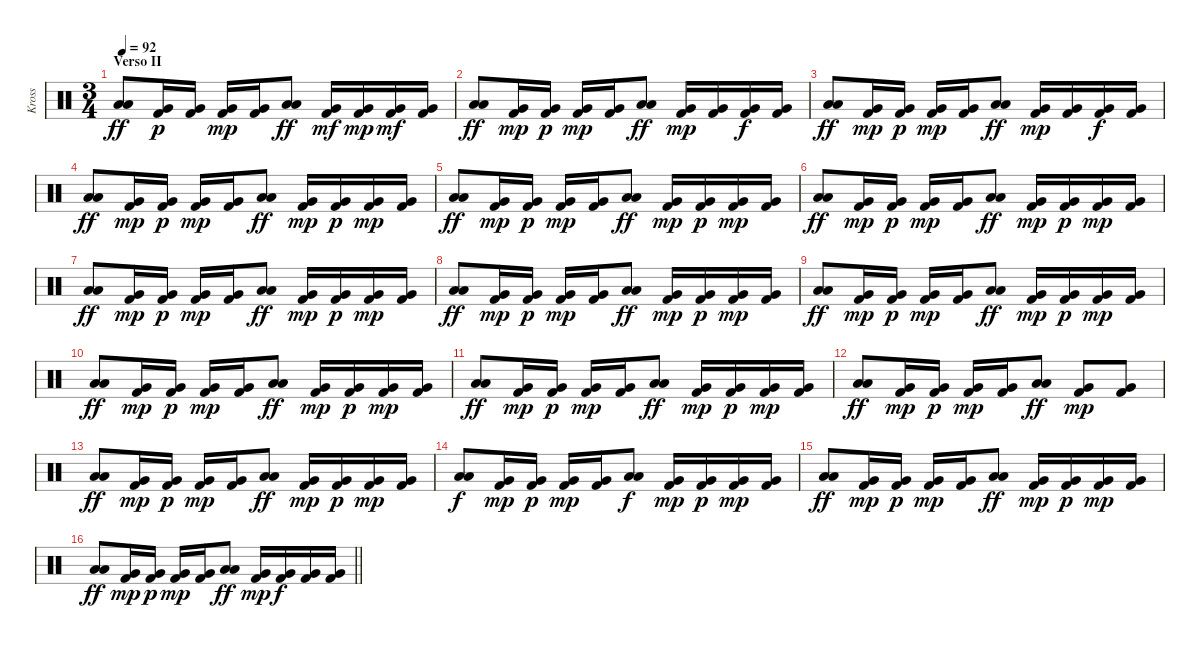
\track ("Kross" "Kross") {instrument percussion}
\staff {score}
\articulation defaults
\ts (3 4)
\section ("" "Verso II")
\tempo 92
\clef neutral
\ks c
("Low Floor Tom (hit)" "Low Tom (hit)").8{dy ff} ("Very Low Tom (hit)" "Kick (hit) 2").16{dy p} ("Very Low Tom (hit)" "Kick (hit) 2").16 ("Very Low Tom (hit)" "Kick (hit) 2").16{dy mp} ("Very Low Tom (hit)" "Kick (hit) 2").16 ("Low Floor Tom (hit)" "Low Tom (hit)").8{dy ff} ("Very Low Tom (hit)" "Kick (hit) 2").16{dy mf} ("Very Low Tom (hit)" "Kick (hit) 2").16{dy mp} ("Very Low Tom (hit)" "Kick (hit) 2").16{dy mf} ("Very Low Tom (hit)" "Kick (hit) 2").16 |
("Low Floor Tom (hit)" "Low Tom (hit)").8{dy ff} ("Very Low Tom (hit)" "Kick (hit) 2").16{dy mp} ("Very Low Tom (hit)" "Kick (hit) 2").16{dy p} ("Very Low Tom (hit)" "Kick (hit) 2").16{dy mp} ("Very Low Tom (hit)" "Kick (hit) 2").16 ("Low Floor Tom (hit)" "Low Tom (hit)").8{dy ff} ("Very Low Tom (hit)" "Kick (hit) 2").16{dy mp} ("Very Low Tom (hit)" "Kick (hit) 2").16 ("Very Low Tom (hit)" "Kick (hit) 2").16{dy f} ("Very Low Tom (hit)" "Kick (hit) 2").16 |
("Low Floor Tom (hit)" "Low Tom (hit)").8{dy ff} ("Very Low Tom (hit)" "Kick (hit) 2").16{dy mp} ("Very Low Tom (hit)" "Kick (hit) 2").16{dy p} ("Very Low Tom (hit)" "Kick (hit) 2").16{dy mp} ("Very Low Tom (hit)" "Kick (hit) 2").16 ("Low Floor Tom (hit)" "Low Tom (hit)").8{dy ff} ("Very Low Tom (hit)" "Kick (hit) 2").16{dy mp} ("Very Low Tom (hit)" "Kick (hit) 2").16 ("Very Low Tom (hit)" "Kick (hit) 2").16{dy f} ("Very Low Tom (hit)" "Kick (hit) 2").16 |
("Low Floor Tom (hit)" "Low Tom (hit)").8{dy ff} ("Very Low Tom (hit)" "Kick (hit) 2").16{dy mp} ("Very Low Tom (hit)" "Kick (hit) 2").16{dy p} ("Very Low Tom (hit)" "Kick (hit) 2").16{dy mp} ("Very Low Tom (hit)" "Kick (hit) 2").16 ("Low Floor Tom (hit)" "Low Tom (hit)").8{dy ff} ("Very Low Tom (hit)" "Kick (hit) 2").16{dy mp} ("Very Low Tom (hit)" "Kick (hit) 2").16{dy p} ("Very Low Tom (hit)" "Kick (hit) 2").16{dy mp} ("Very Low Tom (hit)" "Kick (hit) 2").16 |
("Low Floor Tom (hit)" "Low Tom (hit)").8{dy ff} ("Very Low Tom (hit)" "Kick (hit) 2").16{dy mp} ("Very Low Tom (hit)" "Kick (hit) 2").16{dy p} ("Very Low Tom (hit)" "Kick (hit) 2").16{dy mp} ("Very Low Tom (hit)" "Kick (hit) 2").16 ("Low Floor Tom (hit)" "Low Tom (hit)").8{dy ff} ("Very Low Tom (hit)" "Kick (hit) 2").16{dy mp} ("Very Low Tom (hit)" "Kick (hit) 2").16{dy p} ("Very Low Tom (hit)" "Kick (hit) 2").16{dy mp} ("Very Low Tom (hit)" "Kick (hit) 2").16 |
("Low Floor Tom (hit)" "Low Tom (hit)").8{dy ff} ("Very Low Tom (hit)" "Kick (hit) 2").16{dy mp} ("Very Low Tom (hit)" "Kick (hit) 2").16{dy p} ("Very Low Tom (hit)" "Kick (hit) 2").16{dy mp} ("Very Low Tom (hit)" "Kick (hit) 2").16 ("Low Floor Tom (hit)" "Low Tom (hit)").8{dy ff} ("Very Low Tom (hit)" "Kick (hit) 2").16{dy mp} ("Very Low Tom (hit)" "Kick (hit) 2").16{dy p} ("Very Low Tom (hit)" "Kick (hit) 2").16{dy mp} ("Very Low Tom (hit)" "Kick (hit) 2").16 |
("Low Floor Tom (hit)" "Low Tom (hit)").8{dy ff} ("Very Low Tom (hit)" "Kick (hit) 2").16{dy mp} ("Very Low Tom (hit)" "Kick (hit) 2").16{dy p} ("Very Low Tom (hit)" "Kick (hit) 2").16{dy mp} ("Very Low Tom (hit)" "Kick (hit) 2").16 ("Low Floor Tom (hit)" "Low Tom (hit)").8{dy ff} ("Very Low Tom (hit)" "Kick (hit) 2").16{dy mp} ("Very Low Tom (hit)" "Kick (hit) 2").16{dy p} ("Very Low Tom (hit)" "Kick (hit) 2").16{dy mp} ("Very Low Tom (hit)" "Kick (hit) 2").16 |
("Low Floor Tom (hit)" "Low Tom (hit)").8{dy ff} ("Very Low Tom (hit)" "Kick (hit) 2").16{dy mp} ("Very Low Tom (hit)" "Kick (hit) 2").16{dy p} ("Very Low Tom (hit)" "Kick (hit) 2").16{dy mp} ("Very Low Tom (hit)" "Kick (hit) 2").16 ("Low Floor Tom (hit)" "Low Tom (hit)").8{dy ff} ("Very Low Tom (hit)" "Kick (hit) 2").16{dy mp} ("Very Low Tom (hit)" "Kick (hit) 2").16{dy p} ("Very Low Tom (hit)" "Kick (hit) 2").16{dy mp} ("Very Low Tom (hit)" "Kick (hit) 2").16 |
("Low Floor Tom (hit)" "Low Tom (hit)").8{dy ff} ("Very Low Tom (hit)" "Kick (hit) 2").16{dy mp} ("Very Low Tom (hit)" "Kick (hit) 2").16{dy p} ("Very Low Tom (hit)" "Kick (hit) 2").16{dy mp} ("Very Low Tom (hit)" "Kick (hit) 2").16 ("Low Floor Tom (hit)" "Low Tom (hit)").8{dy ff} ("Very Low Tom (hit)" "Kick (hit) 2").16{dy mp} ("Very Low Tom (hit)" "Kick (hit) 2").16{dy p} ("Very Low Tom (hit)" "Kick (hit) 2").16{dy mp} ("Very Low Tom (hit)" "Kick (hit) 2").16 |
("Low Floor Tom (hit)" "Low Tom (hit)").8{dy ff} ("Very Low Tom (hit)" "Kick (hit) 2").16{dy mp} ("Very Low Tom (hit)" "Kick (hit) 2").16{dy p} ("Very Low Tom (hit)" "Kick (hit) 2").16{dy mp} ("Very Low Tom (hit)" "Kick (hit) 2").16 ("Low Floor Tom (hit)" "Low Tom (hit)").8{dy ff} ("Very Low Tom (hit)" "Kick (hit) 2").16{dy mp} ("Very Low Tom (hit)" "Kick (hit) 2").16{dy p} ("Very Low Tom (hit)" "Kick (hit) 2").16{dy mp} ("Very Low Tom (hit)" "Kick (hit) 2").16 |
("Low Floor Tom (hit)" "Low Tom (hit)").8{dy ff} ("Very Low Tom (hit)" "Kick (hit) 2").16{dy mp} ("Very Low Tom (hit)" "Kick (hit) 2").16{dy p} ("Very Low Tom (hit)" "Kick (hit) 2").16{dy mp} ("Very Low Tom (hit)" "Kick (hit) 2").16 ("Low Floor Tom (hit)" "Low Tom (hit)").8{dy ff} ("Very Low Tom (hit)" "Kick (hit) 2").16{dy mp} ("Very Low Tom (hit)" "Kick (hit) 2").16{dy p} ("Very Low Tom (hit)" "Kick (hit) 2").16{dy mp} ("Very Low Tom (hit)" "Kick (hit) 2").16 |
("Low Floor Tom (hit)" "Low Tom (hit)").8{dy ff} ("Very Low Tom (hit)" "Kick (hit) 2").16{dy mp} ("Very Low Tom (hit)" "Kick (hit) 2").16{dy p} ("Very Low Tom (hit)" "Kick (hit) 2").16{dy mp} ("Very Low Tom (hit)" "Kick (hit) 2").16 ("Low Floor Tom (hit)" "Low Tom (hit)").8{dy ff} ("Very Low Tom (hit)" "Kick (hit) 2").8{dy mp} ("Very Low Tom (hit)" "Kick (hit) 2").8 |
("Low Floor Tom (hit)" "Low Tom (hit)").8{dy ff} ("Very Low Tom (hit)" "Kick (hit) 2").16{dy mp} ("Very Low Tom (hit)" "Kick (hit) 2").16{dy p} ("Very Low Tom (hit)" "Kick (hit) 2").16{dy mp} ("Very Low Tom (hit)" "Kick (hit) 2").16 ("Low Floor Tom (hit)" "Low Tom (hit)").8{dy ff} ("Very Low Tom (hit)" "Kick (hit) 2").16{dy mp} ("Very Low Tom (hit)" "Kick (hit) 2").16{dy p} ("Very Low Tom (hit)" "Kick (hit) 2").16{dy mp} ("Very Low Tom (hit)" "Kick (hit) 2").16 |
("Low Floor Tom (hit)" "Low Tom (hit)").8{dy f} ("Very Low Tom (hit)" "Kick (hit) 2").16{dy mp} ("Very Low Tom (hit)" "Kick (hit) 2").16{dy p} ("Very Low Tom (hit)" "Kick (hit) 2").16{dy mp} ("Very Low Tom (hit)" "Kick (hit) 2").16 ("Low Floor Tom (hit)" "Low Tom (hit)").8{dy f} ("Very Low Tom (hit)" "Kick (hit) 2").16{dy mp} ("Very Low Tom (hit)" "Kick (hit) 2").16{dy p} ("Very Low Tom (hit)" "Kick (hit) 2").16{dy mp} ("Very Low Tom (hit)" "Kick (hit) 2").16 |
("Low Floor Tom (hit)" "Low Tom (hit)").8{dy ff} ("Very Low Tom (hit)" "Kick (hit) 2").16{dy mp} ("Very Low Tom (hit)" "Kick (hit) 2").16{dy p} ("Very Low Tom (hit)" "Kick (hit) 2").16{dy mp} ("Very Low Tom (hit)" "Kick (hit) 2").16 ("Low Floor Tom (hit)" "Low Tom (hit)").8{dy ff} ("Very Low Tom (hit)" "Kick (hit) 2").16{dy mp} ("Very Low Tom (hit)" "Kick (hit) 2").16{dy p} ("Very Low Tom (hit)" "Kick (hit) 2").16{dy mp} ("Very Low Tom (hit)" "Kick (hit) 2").16 |
\barLineRight lightlight
("Low Floor Tom (hit)" "Low Tom (hit)").8{dy ff} ("Very Low Tom (hit)" "Kick (hit) 2").16{dy mp} ("Very Low Tom (hit)" "Kick (hit) 2").16{dy p} ("Very Low Tom (hit)" "Kick (hit) 2").16{dy mp} ("Very Low Tom (hit)" "Kick (hit) 2").16 ("Low Floor Tom (hit)" "Low Tom (hit)").8{dy ff} ("Very Low Tom (hit)" "Kick (hit) 2").16{dy mp} ("Very Low Tom (hit)" "Kick (hit) 2").16{dy f} ("Very Low Tom (hit)" "Kick (hit) 2").16 ("Very Low Tom (hit)" "Kick (hit) 2").16
